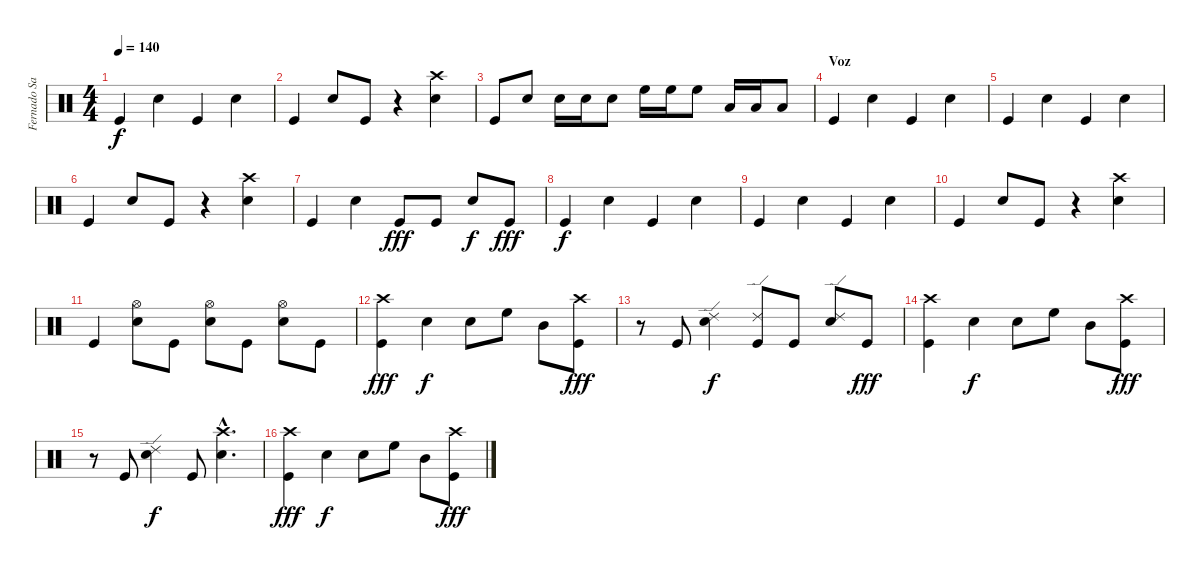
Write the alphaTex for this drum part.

\track ("Fernado Sanchez" "Fernado Sa") {instrument percussion}
\staff {score}
\articulation defaults
\ts (4 4)
\tempo 140
\clef neutral
\ks c "Kick (hit)".4{dy f} "Electric Snare (hit)".4 "Kick (hit)".4 "Electric Snare (hit)".4
|
"Kick (hit)".4 "Electric Snare (hit)".8 "Kick (hit)".8 r.4 ("Crash high (hit)" "Electric Snare (hit)").4 |
"Kick (hit)".8 "Electric Snare (hit)".8 "Electric Snare (hit)".16 "Electric Snare (hit)".16 "Electric Snare (hit)".8 "High Floor Tom (hit)".16 "High Floor Tom (hit)".16 "High Floor Tom (hit)".8 "Low Tom (hit)".16 "Low Tom (hit)".16 "Low Tom (hit)".8 |
\section ("" "Voz")
"Kick (hit)".4 "Electric Snare (hit)".4 "Kick (hit)".4 "Electric Snare (hit)".4 |
"Kick (hit)".4 "Electric Snare (hit)".4 "Kick (hit)".4 "Electric Snare (hit)".4 |
"Kick (hit)".4 "Electric Snare (hit)".8 "Kick (hit)".8 r.4 ("Crash high (hit)" "Electric Snare (hit)").4 |
"Kick (hit)".4 "Electric Snare (hit)".4 "Kick (hit)".8{dy fff} "Kick (hit)".8 "Electric Snare (hit)".8{dy f} "Kick (hit)".8{dy fff} |
"Kick (hit)".4{dy f} "Electric Snare (hit)".4 "Kick (hit)".4 "Electric Snare (hit)".4 |
"Kick (hit)".4 "Electric Snare (hit)".4 "Kick (hit)".4 "Electric Snare (hit)".4 |
"Kick (hit)".4 "Electric Snare (hit)".8 "Kick (hit)".8 r.4 ("Crash high (hit)" "Electric Snare (hit)").4 |
"Kick (hit)".4 ("Hi-Hat (open)" "Electric Snare (hit)").8 "Kick (hit)".8 ("Hi-Hat (open)" "Electric Snare (hit)").8 "Kick (hit)".8 ("Hi-Hat (open)" "Electric Snare (hit)").8 "Kick (hit)".8 |
("Crash high (hit)" "Kick (hit)").4{dy fff} "Electric Snare (hit)".4{dy f} "Electric Snare (hit)".8 "High Floor Tom (hit)".8 "Mid Tom (hit)".8 ("Crash high (hit)" "Kick (hit)").8{dy fff} |
r.8 "Kick (hit)".8 ("Ride (edge) 2" "Electric Snare (hit)").4{dy f} ("Ride (edge) 2" "Kick (hit)").8 "Kick (hit)".8 ("Ride (edge) 2" "Electric Snare (hit)").8 "Kick (hit)".8{dy fff} |
("Crash high (hit)" "Kick (hit)").4 "Electric Snare (hit)".4{dy f} "Electric Snare (hit)".8 "High Floor Tom (hit)".8 "Mid Tom (hit)".8 ("Crash high (hit)" "Kick (hit)").8{dy fff} |
r.8 "Kick (hit)".8 ("Ride (edge) 2" "Electric Snare (hit)").4{dy f} "Kick (hit)".8 ("Crash high (hit)"{hac} "Electric Snare (hit)"{hac}).4{d} |
("Crash high (hit)" "Kick (hit)").4{dy fff} "Electric Snare (hit)".4{dy f} "Electric Snare (hit)".8 "High Floor Tom (hit)".8 "Mid Tom (hit)".8 ("Crash high (hit)" "Kick (hit)").8{dy fff}
